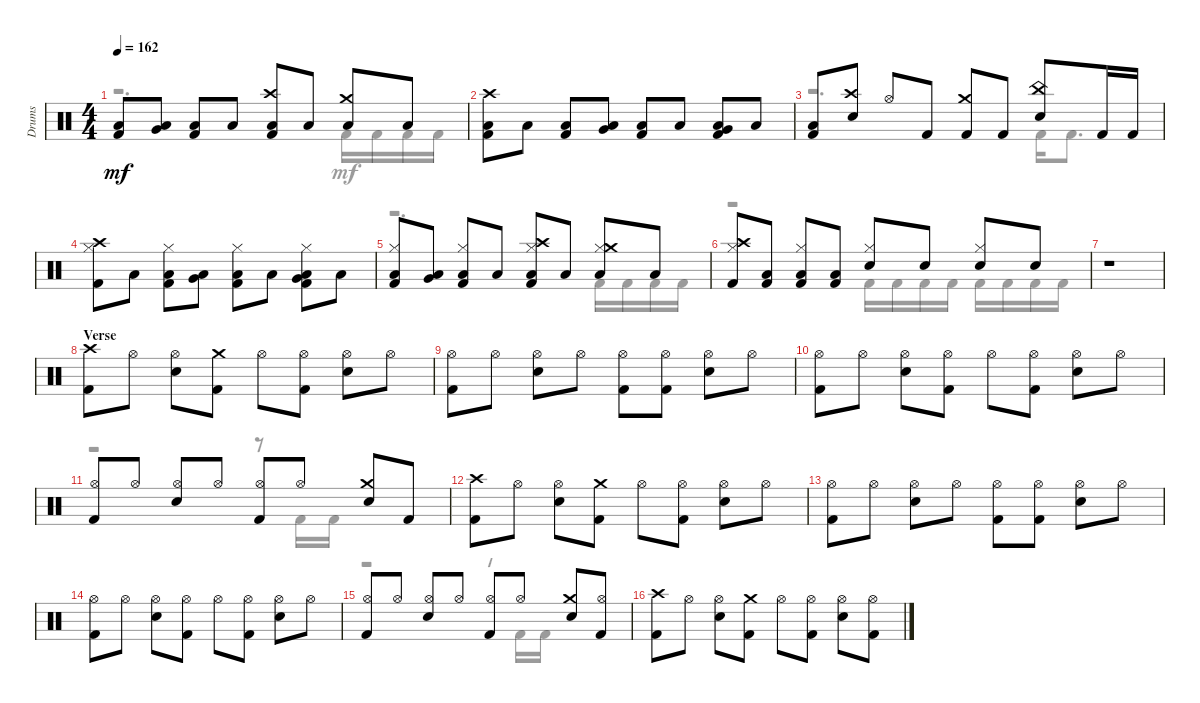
\track ("Drums" "Drums") {instrument percussion}
\staff {score}
\articulation defaults
\voice
\ts (4 4)
\tempo 162
\clef neutral
\ks aminor
("Low Floor Tom (hit)" "Kick (hit) 2").8{dy mf} ("Low Floor Tom (hit)" "Very Low Tom (hit)").8 ("Kick (hit) 2" "Low Floor Tom (hit)").8 "Low Floor Tom (hit)".8 ("Kick (hit) 2" "Low Floor Tom (hit)" "Crash high (hit)").8 "Low Floor Tom (hit)".8 ("Crash medium (hit)" "Low Floor Tom (hit)").8 "Low Floor Tom (hit)".8 |
("Low Floor Tom (hit)" "Kick (hit) 2" "Crash high (hit)").8 "Low Floor Tom (hit)".8 ("Low Floor Tom (hit)" "Kick (hit) 2").8 ("Low Floor Tom (hit)" "Very Low Tom (hit)").8 ("Kick (hit) 2" "Low Floor Tom (hit)").8 "Low Floor Tom (hit)".8 ("Kick (hit) 2" "Very Low Tom (hit)" "Low Floor Tom (hit)").8 "Low Floor Tom (hit)".8 |
("Low Floor Tom (hit)" "Kick (hit) 2").8 ("Snare (hit) 2" "Crash high (hit)").8 "Hi-Hat (open)".8 "Kick (hit) 2".8 ("Kick (hit) 2" "Crash medium (hit)").8 "Kick (hit) 2".8 ("China (hit)" "Snare (hit) 2").8 "Kick (hit) 2".16 "Kick (hit) 2".16 |
("Kick (hit) 2" "Crash high (hit)" "Hi-Hat (closed)").8 "Low Floor Tom (hit)".8 ("Kick (hit) 2" "Low Floor Tom (hit)" "Hi-Hat (closed)").8 ("Very Low Tom (hit)" "Low Floor Tom (hit)").8 ("Hi-Hat (closed)" "Kick (hit) 2" "Low Floor Tom (hit)").8 "Low Floor Tom (hit)".8 ("Low Floor Tom (hit)" "Kick (hit) 2" "Hi-Hat (closed)" "Very Low Tom (hit)").8 "Low Floor Tom (hit)".8 |
("Kick (hit) 2" "Hi-Hat (closed)" "Low Floor Tom (hit)").8 ("Low Floor Tom (hit)" "Very Low Tom (hit)").8 ("Low Floor Tom (hit)" "Kick (hit) 2" "Hi-Hat (closed)").8 "Low Floor Tom (hit)".8 ("Kick (hit) 2" "Low Floor Tom (hit)" "Hi-Hat (closed)" "Crash high (hit)").8 "Low Floor Tom (hit)".8 ("Low Floor Tom (hit)" "Hi-Hat (closed)" "Crash medium (hit)").8 "Low Floor Tom (hit)".8 |
("Kick (hit) 2" "Crash high (hit)" "Hi-Hat (closed)").8 ("Kick (hit) 2" "Low Floor Tom (hit)").8 ("Low Floor Tom (hit)" "Kick (hit) 2" "Hi-Hat (closed)").8 ("Kick (hit) 2" "Low Floor Tom (hit)").8 ("Hi-Hat (closed)" "Snare (hit) 2").8 "Snare (hit) 2".8 ("Hi-Hat (closed)" "Snare (hit) 2").8 "Snare (hit) 2".8 |
r.1 |
\section ("" "Verse")
("Kick (hit) 2" "Crash high (hit)").8 "Hi-Hat (open)".8 ("Hi-Hat (open)" "Snare (hit) 2").8 ("Kick (hit) 2" "Crash medium (hit)").8 "Hi-Hat (open)".8 ("Hi-Hat (open)" "Kick (hit) 2").8 ("Hi-Hat (open)" "Snare (hit) 2").8 "Hi-Hat (open)".8 |
("Kick (hit) 2" "Hi-Hat (open)").8 "Hi-Hat (open)".8 ("Snare (hit) 2" "Hi-Hat (open)").8 "Hi-Hat (open)".8 ("Hi-Hat (open)" "Kick (hit) 2").8 ("Kick (hit) 2" "Hi-Hat (open)").8 ("Hi-Hat (open)" "Snare (hit) 2").8 "Hi-Hat (open)".8 |
("Hi-Hat (open)" "Kick (hit) 2").8 "Hi-Hat (open)".8 ("Snare (hit) 2" "Hi-Hat (open)").8 ("Kick (hit) 2" "Hi-Hat (open)").8 "Hi-Hat (open)".8 ("Kick (hit) 2" "Hi-Hat (open)").8 ("Hi-Hat (open)" "Snare (hit) 2").8 "Hi-Hat (open)".8 |
("Hi-Hat (open)" "Kick (hit) 2").8 "Hi-Hat (open)".8 ("Snare (hit) 2" "Hi-Hat (open)").8 "Hi-Hat (open)".8 ("Hi-Hat (open)" "Kick (hit) 2").8 "Hi-Hat (open)".8 ("Snare (hit) 2" "Crash medium (hit)").8 "Kick (hit) 2".8 |
("Crash high (hit)" "Kick (hit) 2").8 "Hi-Hat (open)".8 ("Snare (hit) 2" "Hi-Hat (open)").8 ("Kick (hit) 2" "Crash medium (hit)").8 "Hi-Hat (open)".8 ("Kick (hit) 2" "Hi-Hat (open)").8 ("Hi-Hat (open)" "Snare (hit) 2").8 "Hi-Hat (open)".8 |
("Kick (hit) 2" "Hi-Hat (open)").8 "Hi-Hat (open)".8 ("Hi-Hat (open)" "Snare (hit) 2").8 "Hi-Hat (open)".8 ("Hi-Hat (open)" "Kick (hit) 2").8 ("Kick (hit) 2" "Hi-Hat (open)").8 ("Snare (hit) 2" "Hi-Hat (open)").8 "Hi-Hat (open)".8 |
("Kick (hit) 2" "Hi-Hat (open)").8 "Hi-Hat (open)".8 ("Snare (hit) 2" "Hi-Hat (open)").8 ("Hi-Hat (open)" "Kick (hit) 2").8 "Hi-Hat (open)".8 ("Hi-Hat (open)" "Kick (hit) 2").8 ("Snare (hit) 2" "Hi-Hat (open)").8 "Hi-Hat (open)".8 |
("Kick (hit) 2" "Hi-Hat (open)").8 "Hi-Hat (open)".8 ("Snare (hit) 2" "Hi-Hat (open)").8 "Hi-Hat (open)".8 ("Kick (hit) 2" "Hi-Hat (open)").8 "Hi-Hat (open)".8 ("Snare (hit) 2" "Crash medium (hit)").8 ("Kick (hit) 2" "Hi-Hat (open)").8 |
("Crash high (hit)" "Kick (hit) 2").8 "Hi-Hat (open)".8 ("Hi-Hat (open)" "Snare (hit) 2").8 ("Crash medium (hit)" "Kick (hit) 2").8 "Hi-Hat (open)".8 ("Kick (hit) 2" "Hi-Hat (open)").8 ("Snare (hit) 2" "Hi-Hat (open)").8 ("Hi-Hat (open)" "Kick (hit) 2").8
\voice
\clef neutral
\ottava regular
\simile none
\ks aminor
r.2{d dy mf} "Kick (hit) 2".16 "Kick (hit) 2".16 "Kick (hit) 2".16 "Kick (hit) 2".16 |
|
r.2{d} "Kick (hit) 2".16 "Kick (hit) 2".8{d} |
|
r.2{d} "Kick (hit) 2".16 "Kick (hit) 2".16 "Kick (hit) 2".16 "Kick (hit) 2".16 |
r.2 "Kick (hit) 2".16 "Kick (hit) 2".16 "Kick (hit) 2".16 "Kick (hit) 2".16 "Kick (hit) 2".16 "Kick (hit) 2".16 "Kick (hit) 2".16 "Kick (hit) 2".16 |
|
|
|
|
r.2 r.8 "Kick (hit) 2".16 "Kick (hit) 2".16 |
|
|
|
r.2 r.8 "Kick (hit) 2".16 "Kick (hit) 2".16 |
